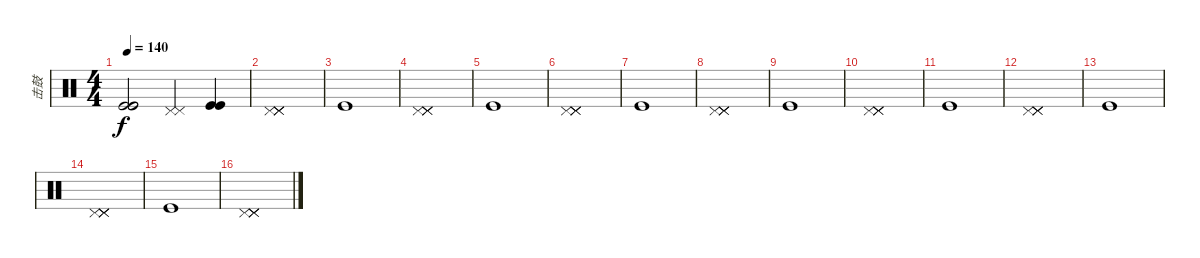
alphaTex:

\track ("击鼓" "击鼓") {instrument percussion}
\staff {score}
\articulation defaults
\ts (4 4)
\tempo 140
\clef neutral
\ks c
("Kick (hit)" "Kick (hit)" "Kick (hit)").2{dy f} ("Pedal Hi-Hat (hit)" "Pedal Hi-Hat (hit)").4 ("Kick (hit)" "Kick (hit)").4 |
("Pedal Hi-Hat (hit)" "Pedal Hi-Hat (hit)" "Pedal Hi-Hat (hit)" "Pedal Hi-Hat (hit)").1 |
"Kick (hit)".1 |
("Pedal Hi-Hat (hit)" "Pedal Hi-Hat (hit)" "Pedal Hi-Hat (hit)" "Pedal Hi-Hat (hit)").1 |
"Kick (hit)".1 |
("Pedal Hi-Hat (hit)" "Pedal Hi-Hat (hit)" "Pedal Hi-Hat (hit)" "Pedal Hi-Hat (hit)").1 |
"Kick (hit)".1 |
("Pedal Hi-Hat (hit)" "Pedal Hi-Hat (hit)" "Pedal Hi-Hat (hit)" "Pedal Hi-Hat (hit)").1 |
"Kick (hit)".1 |
("Pedal Hi-Hat (hit)" "Pedal Hi-Hat (hit)" "Pedal Hi-Hat (hit)" "Pedal Hi-Hat (hit)").1 |
"Kick (hit)".1 |
("Pedal Hi-Hat (hit)" "Pedal Hi-Hat (hit)" "Pedal Hi-Hat (hit)" "Pedal Hi-Hat (hit)").1 |
"Kick (hit)".1 |
("Pedal Hi-Hat (hit)" "Pedal Hi-Hat (hit)" "Pedal Hi-Hat (hit)" "Pedal Hi-Hat (hit)").1 |
"Kick (hit)".1 |
("Pedal Hi-Hat (hit)" "Pedal Hi-Hat (hit)" "Pedal Hi-Hat (hit)" "Pedal Hi-Hat (hit)").1
